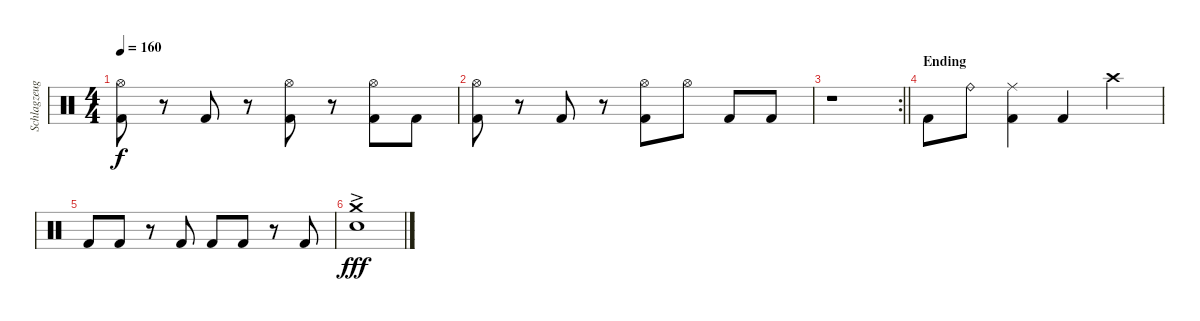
\track ("Schlagzeug" "Schlagzeug") {instrument percussion}
\staff {score}
\articulation defaults
\ts (4 4)
\tempo 160
\clef neutral
\ks c
("Hi-Hat (open)" "Kick (hit) 2").8{dy f} r.8 "Kick (hit) 2".8 r.8 ("Hi-Hat (open)" "Kick (hit) 2").8 r.8 ("Hi-Hat (open)" "Kick (hit) 2").8 "Kick (hit) 2".8 |
("Hi-Hat (open)" "Kick (hit) 2").8 r.8 "Kick (hit) 2".8 r.8 ("Hi-Hat (open)" "Kick (hit) 2").8 "Hi-Hat (open)".8 "Kick (hit) 2".8 "Kick (hit) 2".8 |
\rc 2
\barLineRight lightlight
r.1 |
\section ("" "Ending")
"Kick (hit) 2".8 "Ride (bell)".8 ("Ride (middle)" "Kick (hit) 2").4 "Kick (hit) 2".4 "Crash high (hit)".4 |
"Kick (hit) 2".8 "Kick (hit) 2".8 r.8 "Kick (hit) 2".8 "Kick (hit) 2".8 "Kick (hit) 2".8 r.8 "Kick (hit) 2".8 |
("Crash medium (hit)"{ac} "Electric Snare (hit)").1{dy fff}
